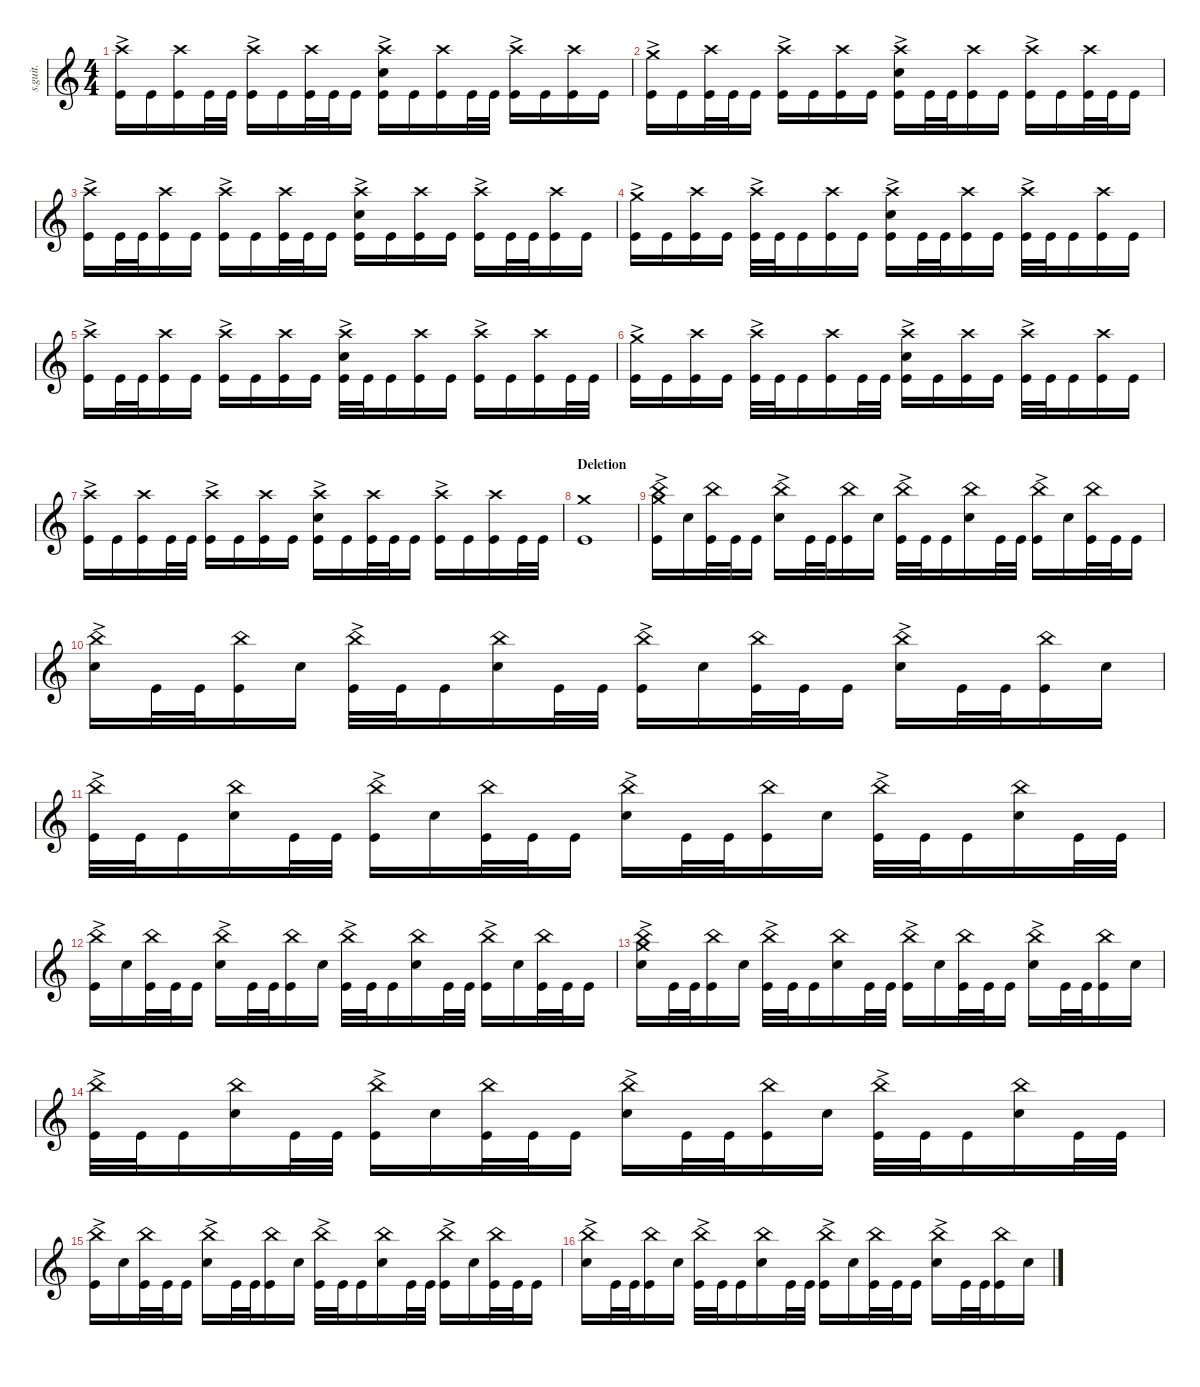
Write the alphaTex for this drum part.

\defaultSystemsLayout 4
\hideDynamics
\bracketExtendMode nobrackets
\track ("Tomas Haake (Drums)" "s.guit.") {instrument percussion}
\staff {score}
\articulation defaults
\ts (4 4)
\tempo (115 hide)
\clef g2
\ks c
("Crash high (hit)"{ac} "Kick (hit)").16{lyrics (0 "") lyrics (1 "") lyrics (2 "") lyrics (3 "") lyrics (4 "") dy f} "Kick (hit)".16{lyrics (0 "") lyrics (1 "") lyrics (2 "") lyrics (3 "") lyrics (4 "")} ("Crash high (hit)" "Kick (hit)").16{lyrics (0 "") lyrics (1 "") lyrics (2 "") lyrics (3 "") lyrics (4 "") dy p} "Kick (hit)".32{lyrics (0 "") lyrics (1 "") lyrics (2 "") lyrics (3 "") lyrics (4 "") dy f} "Kick (hit)".32{lyrics (0 "") lyrics (1 "") lyrics (2 "") lyrics (3 "") lyrics (4 "") dy mf} ("Crash high (hit)"{ac} "Kick (hit)").16{lyrics (0 "") lyrics (1 "") lyrics (2 "") lyrics (3 "") lyrics (4 "") dy f} "Kick (hit)".16{lyrics (0 "") lyrics (1 "") lyrics (2 "") lyrics (3 "") lyrics (4 "")} ("Crash high (hit)" "Kick (hit)").32{lyrics (0 "") lyrics (1 "") lyrics (2 "") lyrics (3 "") lyrics (4 "") dy p} "Kick (hit)".32{lyrics (0 "") lyrics (1 "") lyrics (2 "") lyrics (3 "") lyrics (4 "") dy mf} "Kick (hit)".16{lyrics (0 "") lyrics (1 "") lyrics (2 "") lyrics (3 "") lyrics (4 "") dy f} ("Crash high (hit)"{ac} "Snare (hit) 2" "Kick (hit)").16{lyrics (0 "") lyrics (1 "") lyrics (2 "") lyrics (3 "") lyrics (4 "")} "Kick (hit)".16{lyrics (0 "") lyrics (1 "") lyrics (2 "") lyrics (3 "") lyrics (4 "")} ("Crash high (hit)" "Kick (hit)").16{lyrics (0 "") lyrics (1 "") lyrics (2 "") lyrics (3 "") lyrics (4 "") dy p} "Kick (hit)".32{lyrics (0 "") lyrics (1 "") lyrics (2 "") lyrics (3 "") lyrics (4 "") dy f} "Kick (hit)".32{lyrics (0 "") lyrics (1 "") lyrics (2 "") lyrics (3 "") lyrics (4 "") dy mf} ("Crash high (hit)"{ac} "Kick (hit)").16{lyrics (0 "") lyrics (1 "") lyrics (2 "") lyrics (3 "") lyrics (4 "") dy f} "Kick (hit)".16{lyrics (0 "") lyrics (1 "") lyrics (2 "") lyrics (3 "") lyrics (4 "")} ("Crash high (hit)" "Kick (hit)").16{lyrics (0 "") lyrics (1 "") lyrics (2 "") lyrics (3 "") lyrics (4 "") dy p} "Kick (hit)".16{lyrics (0 "") lyrics (1 "") lyrics (2 "") lyrics (3 "") lyrics (4 "") dy f} |
("Crash medium (hit)"{ac} "Kick (hit)").16{lyrics (0 "") lyrics (1 "") lyrics (2 "") lyrics (3 "") lyrics (4 "")} "Kick (hit)".16{lyrics (0 "") lyrics (1 "") lyrics (2 "") lyrics (3 "") lyrics (4 "")} ("Crash high (hit)" "Kick (hit)").32{lyrics (0 "") lyrics (1 "") lyrics (2 "") lyrics (3 "") lyrics (4 "") dy p} "Kick (hit)".32{lyrics (0 "") lyrics (1 "") lyrics (2 "") lyrics (3 "") lyrics (4 "") dy mf} "Kick (hit)".16{lyrics (0 "") lyrics (1 "") lyrics (2 "") lyrics (3 "") lyrics (4 "") dy f} ("Crash high (hit)"{ac} "Kick (hit)").16{lyrics (0 "") lyrics (1 "") lyrics (2 "") lyrics (3 "") lyrics (4 "")} "Kick (hit)".16{lyrics (0 "") lyrics (1 "") lyrics (2 "") lyrics (3 "") lyrics (4 "")} ("Crash high (hit)" "Kick (hit)").16{lyrics (0 "") lyrics (1 "") lyrics (2 "") lyrics (3 "") lyrics (4 "") dy p} "Kick (hit)".16{lyrics (0 "") lyrics (1 "") lyrics (2 "") lyrics (3 "") lyrics (4 "") dy f} ("Crash high (hit)"{ac} "Snare (hit) 2" "Kick (hit)").16{lyrics (0 "") lyrics (1 "") lyrics (2 "") lyrics (3 "") lyrics (4 "")} "Kick (hit)".32{lyrics (0 "") lyrics (1 "") lyrics (2 "") lyrics (3 "") lyrics (4 "")} "Kick (hit)".32{lyrics (0 "") lyrics (1 "") lyrics (2 "") lyrics (3 "") lyrics (4 "") dy mf} ("Crash high (hit)" "Kick (hit)").16{lyrics (0 "") lyrics (1 "") lyrics (2 "") lyrics (3 "") lyrics (4 "") dy p} "Kick (hit)".16{lyrics (0 "") lyrics (1 "") lyrics (2 "") lyrics (3 "") lyrics (4 "") dy f} ("Crash high (hit)"{ac} "Kick (hit)").16{lyrics (0 "") lyrics (1 "") lyrics (2 "") lyrics (3 "") lyrics (4 "")} "Kick (hit)".16{lyrics (0 "") lyrics (1 "") lyrics (2 "") lyrics (3 "") lyrics (4 "")} ("Crash high (hit)" "Kick (hit)").32{lyrics (0 "") lyrics (1 "") lyrics (2 "") lyrics (3 "") lyrics (4 "") dy p} "Kick (hit)".32{lyrics (0 "") lyrics (1 "") lyrics (2 "") lyrics (3 "") lyrics (4 "") dy mf} "Kick (hit)".16{lyrics (0 "") lyrics (1 "") lyrics (2 "") lyrics (3 "") lyrics (4 "") dy f} |
("Crash high (hit)"{ac} "Kick (hit)").16{lyrics (0 "") lyrics (1 "") lyrics (2 "") lyrics (3 "") lyrics (4 "")} "Kick (hit)".32{lyrics (0 "") lyrics (1 "") lyrics (2 "") lyrics (3 "") lyrics (4 "")} "Kick (hit)".32{lyrics (0 "") lyrics (1 "") lyrics (2 "") lyrics (3 "") lyrics (4 "") dy mf} ("Crash high (hit)" "Kick (hit)").16{lyrics (0 "") lyrics (1 "") lyrics (2 "") lyrics (3 "") lyrics (4 "") dy p} "Kick (hit)".16{lyrics (0 "") lyrics (1 "") lyrics (2 "") lyrics (3 "") lyrics (4 "") dy f} ("Crash high (hit)"{ac} "Kick (hit)").16{lyrics (0 "") lyrics (1 "") lyrics (2 "") lyrics (3 "") lyrics (4 "")} "Kick (hit)".16{lyrics (0 "") lyrics (1 "") lyrics (2 "") lyrics (3 "") lyrics (4 "")} ("Crash high (hit)" "Kick (hit)").32{lyrics (0 "") lyrics (1 "") lyrics (2 "") lyrics (3 "") lyrics (4 "") dy p} "Kick (hit)".32{lyrics (0 "") lyrics (1 "") lyrics (2 "") lyrics (3 "") lyrics (4 "") dy mf} "Kick (hit)".16{lyrics (0 "") lyrics (1 "") lyrics (2 "") lyrics (3 "") lyrics (4 "") dy f} ("Crash high (hit)"{ac} "Snare (hit) 2" "Kick (hit)").16{lyrics (0 "") lyrics (1 "") lyrics (2 "") lyrics (3 "") lyrics (4 "")} "Kick (hit)".16{lyrics (0 "") lyrics (1 "") lyrics (2 "") lyrics (3 "") lyrics (4 "")} ("Crash high (hit)" "Kick (hit)").16{lyrics (0 "") lyrics (1 "") lyrics (2 "") lyrics (3 "") lyrics (4 "") dy p} "Kick (hit)".16{lyrics (0 "") lyrics (1 "") lyrics (2 "") lyrics (3 "") lyrics (4 "") dy f} ("Crash high (hit)"{ac} "Kick (hit)").16{lyrics (0 "") lyrics (1 "") lyrics (2 "") lyrics (3 "") lyrics (4 "")} "Kick (hit)".32{lyrics (0 "") lyrics (1 "") lyrics (2 "") lyrics (3 "") lyrics (4 "")} "Kick (hit)".32{lyrics (0 "") lyrics (1 "") lyrics (2 "") lyrics (3 "") lyrics (4 "") dy mf} ("Crash high (hit)" "Kick (hit)").16{lyrics (0 "") lyrics (1 "") lyrics (2 "") lyrics (3 "") lyrics (4 "") dy p} "Kick (hit)".16{lyrics (0 "") lyrics (1 "") lyrics (2 "") lyrics (3 "") lyrics (4 "") dy f} |
("Crash medium (hit)"{ac} "Kick (hit)").16{lyrics (0 "") lyrics (1 "") lyrics (2 "") lyrics (3 "") lyrics (4 "")} "Kick (hit)".16{lyrics (0 "") lyrics (1 "") lyrics (2 "") lyrics (3 "") lyrics (4 "")} ("Crash high (hit)" "Kick (hit)").16{lyrics (0 "") lyrics (1 "") lyrics (2 "") lyrics (3 "") lyrics (4 "") dy p} "Kick (hit)".16{lyrics (0 "") lyrics (1 "") lyrics (2 "") lyrics (3 "") lyrics (4 "") dy f} ("Crash high (hit)"{ac} "Kick (hit)").32{lyrics (0 "") lyrics (1 "") lyrics (2 "") lyrics (3 "") lyrics (4 "")} "Kick (hit)".32{lyrics (0 "") lyrics (1 "") lyrics (2 "") lyrics (3 "") lyrics (4 "") dy mf} "Kick (hit)".16{lyrics (0 "") lyrics (1 "") lyrics (2 "") lyrics (3 "") lyrics (4 "") dy f} ("Crash high (hit)" "Kick (hit)").16{lyrics (0 "") lyrics (1 "") lyrics (2 "") lyrics (3 "") lyrics (4 "") dy p} "Kick (hit)".16{lyrics (0 "") lyrics (1 "") lyrics (2 "") lyrics (3 "") lyrics (4 "") dy f} ("Crash high (hit)"{ac} "Snare (hit) 2" "Kick (hit)").16{lyrics (0 "") lyrics (1 "") lyrics (2 "") lyrics (3 "") lyrics (4 "")} "Kick (hit)".32{lyrics (0 "") lyrics (1 "") lyrics (2 "") lyrics (3 "") lyrics (4 "")} "Kick (hit)".32{lyrics (0 "") lyrics (1 "") lyrics (2 "") lyrics (3 "") lyrics (4 "") dy mf} ("Crash high (hit)" "Kick (hit)").16{lyrics (0 "") lyrics (1 "") lyrics (2 "") lyrics (3 "") lyrics (4 "") dy p} "Kick (hit)".16{lyrics (0 "") lyrics (1 "") lyrics (2 "") lyrics (3 "") lyrics (4 "") dy f} ("Crash high (hit)"{ac} "Kick (hit)").32{lyrics (0 "") lyrics (1 "") lyrics (2 "") lyrics (3 "") lyrics (4 "")} "Kick (hit)".32{lyrics (0 "") lyrics (1 "") lyrics (2 "") lyrics (3 "") lyrics (4 "") dy mf} "Kick (hit)".16{lyrics (0 "") lyrics (1 "") lyrics (2 "") lyrics (3 "") lyrics (4 "") dy f} ("Crash high (hit)" "Kick (hit)").16{lyrics (0 "") lyrics (1 "") lyrics (2 "") lyrics (3 "") lyrics (4 "") dy p} "Kick (hit)".16{lyrics (0 "") lyrics (1 "") lyrics (2 "") lyrics (3 "") lyrics (4 "") dy f} |
("Crash high (hit)"{ac} "Kick (hit)").16{lyrics (0 "") lyrics (1 "") lyrics (2 "") lyrics (3 "") lyrics (4 "")} "Kick (hit)".32{lyrics (0 "") lyrics (1 "") lyrics (2 "") lyrics (3 "") lyrics (4 "")} "Kick (hit)".32{lyrics (0 "") lyrics (1 "") lyrics (2 "") lyrics (3 "") lyrics (4 "") dy mf} ("Crash high (hit)" "Kick (hit)").16{lyrics (0 "") lyrics (1 "") lyrics (2 "") lyrics (3 "") lyrics (4 "") dy p} "Kick (hit)".16{lyrics (0 "") lyrics (1 "") lyrics (2 "") lyrics (3 "") lyrics (4 "") dy f} ("Crash high (hit)"{ac} "Kick (hit)").16{lyrics (0 "") lyrics (1 "") lyrics (2 "") lyrics (3 "") lyrics (4 "")} "Kick (hit)".16{lyrics (0 "") lyrics (1 "") lyrics (2 "") lyrics (3 "") lyrics (4 "")} ("Crash high (hit)" "Kick (hit)").16{lyrics (0 "") lyrics (1 "") lyrics (2 "") lyrics (3 "") lyrics (4 "") dy p} "Kick (hit)".16{lyrics (0 "") lyrics (1 "") lyrics (2 "") lyrics (3 "") lyrics (4 "") dy f} ("Crash high (hit)"{ac} "Snare (hit) 2" "Kick (hit)").32{lyrics (0 "") lyrics (1 "") lyrics (2 "") lyrics (3 "") lyrics (4 "")} "Kick (hit)".32{lyrics (0 "") lyrics (1 "") lyrics (2 "") lyrics (3 "") lyrics (4 "") dy mf} "Kick (hit)".16{lyrics (0 "") lyrics (1 "") lyrics (2 "") lyrics (3 "") lyrics (4 "") dy f} ("Crash high (hit)" "Kick (hit)").16{lyrics (0 "") lyrics (1 "") lyrics (2 "") lyrics (3 "") lyrics (4 "") dy p} "Kick (hit)".16{lyrics (0 "") lyrics (1 "") lyrics (2 "") lyrics (3 "") lyrics (4 "") dy f} ("Crash high (hit)"{ac} "Kick (hit)").16{lyrics (0 "") lyrics (1 "") lyrics (2 "") lyrics (3 "") lyrics (4 "")} "Kick (hit)".16{lyrics (0 "") lyrics (1 "") lyrics (2 "") lyrics (3 "") lyrics (4 "")} ("Crash high (hit)" "Kick (hit)").16{lyrics (0 "") lyrics (1 "") lyrics (2 "") lyrics (3 "") lyrics (4 "") dy p} "Kick (hit)".32{lyrics (0 "") lyrics (1 "") lyrics (2 "") lyrics (3 "") lyrics (4 "") dy f} "Kick (hit)".32{lyrics (0 "") lyrics (1 "") lyrics (2 "") lyrics (3 "") lyrics (4 "") dy mf} |
("Crash medium (hit)"{ac} "Kick (hit)").16{lyrics (0 "") lyrics (1 "") lyrics (2 "") lyrics (3 "") lyrics (4 "") dy f} "Kick (hit)".16{lyrics (0 "") lyrics (1 "") lyrics (2 "") lyrics (3 "") lyrics (4 "")} ("Crash high (hit)" "Kick (hit)").16{lyrics (0 "") lyrics (1 "") lyrics (2 "") lyrics (3 "") lyrics (4 "") dy p} "Kick (hit)".16{lyrics (0 "") lyrics (1 "") lyrics (2 "") lyrics (3 "") lyrics (4 "") dy f} ("Crash high (hit)"{ac} "Kick (hit)").32{lyrics (0 "") lyrics (1 "") lyrics (2 "") lyrics (3 "") lyrics (4 "")} "Kick (hit)".32{lyrics (0 "") lyrics (1 "") lyrics (2 "") lyrics (3 "") lyrics (4 "") dy mf} "Kick (hit)".16{lyrics (0 "") lyrics (1 "") lyrics (2 "") lyrics (3 "") lyrics (4 "") dy f} ("Crash high (hit)" "Kick (hit)").16{lyrics (0 "") lyrics (1 "") lyrics (2 "") lyrics (3 "") lyrics (4 "") dy p} "Kick (hit)".32{lyrics (0 "") lyrics (1 "") lyrics (2 "") lyrics (3 "") lyrics (4 "") dy f} "Kick (hit)".32{lyrics (0 "") lyrics (1 "") lyrics (2 "") lyrics (3 "") lyrics (4 "") dy mf} ("Crash high (hit)"{ac} "Snare (hit) 2" "Kick (hit)").16{lyrics (0 "") lyrics (1 "") lyrics (2 "") lyrics (3 "") lyrics (4 "") dy f} "Kick (hit)".16{lyrics (0 "") lyrics (1 "") lyrics (2 "") lyrics (3 "") lyrics (4 "")} ("Crash high (hit)" "Kick (hit)").16{lyrics (0 "") lyrics (1 "") lyrics (2 "") lyrics (3 "") lyrics (4 "") dy p} "Kick (hit)".16{lyrics (0 "") lyrics (1 "") lyrics (2 "") lyrics (3 "") lyrics (4 "") dy f} ("Crash high (hit)"{ac} "Kick (hit)").32{lyrics (0 "") lyrics (1 "") lyrics (2 "") lyrics (3 "") lyrics (4 "")} "Kick (hit)".32{lyrics (0 "") lyrics (1 "") lyrics (2 "") lyrics (3 "") lyrics (4 "") dy mf} "Kick (hit)".16{lyrics (0 "") lyrics (1 "") lyrics (2 "") lyrics (3 "") lyrics (4 "") dy f} ("Crash high (hit)" "Kick (hit)").16{lyrics (0 "") lyrics (1 "") lyrics (2 "") lyrics (3 "") lyrics (4 "") dy p} "Kick (hit)".16{lyrics (0 "") lyrics (1 "") lyrics (2 "") lyrics (3 "") lyrics (4 "") dy f} |
("Crash high (hit)"{ac} "Kick (hit)").16{lyrics (0 "") lyrics (1 "") lyrics (2 "") lyrics (3 "") lyrics (4 "")} "Kick (hit)".16{lyrics (0 "") lyrics (1 "") lyrics (2 "") lyrics (3 "") lyrics (4 "")} ("Crash high (hit)" "Kick (hit)").16{lyrics (0 "") lyrics (1 "") lyrics (2 "") lyrics (3 "") lyrics (4 "") dy p} "Kick (hit)".32{lyrics (0 "") lyrics (1 "") lyrics (2 "") lyrics (3 "") lyrics (4 "") dy f} "Kick (hit)".32{lyrics (0 "") lyrics (1 "") lyrics (2 "") lyrics (3 "") lyrics (4 "") dy mf} ("Crash high (hit)"{ac} "Kick (hit)").16{lyrics (0 "") lyrics (1 "") lyrics (2 "") lyrics (3 "") lyrics (4 "") dy f} "Kick (hit)".16{lyrics (0 "") lyrics (1 "") lyrics (2 "") lyrics (3 "") lyrics (4 "")} ("Crash high (hit)" "Kick (hit)").16{lyrics (0 "") lyrics (1 "") lyrics (2 "") lyrics (3 "") lyrics (4 "") dy p} "Kick (hit)".16{lyrics (0 "") lyrics (1 "") lyrics (2 "") lyrics (3 "") lyrics (4 "") dy f} ("Crash high (hit)"{ac} "Snare (hit) 2" "Kick (hit)").16{lyrics (0 "") lyrics (1 "") lyrics (2 "") lyrics (3 "") lyrics (4 "")} "Kick (hit)".16{lyrics (0 "") lyrics (1 "") lyrics (2 "") lyrics (3 "") lyrics (4 "")} ("Crash high (hit)" "Kick (hit)").32{lyrics (0 "") lyrics (1 "") lyrics (2 "") lyrics (3 "") lyrics (4 "") dy p} "Kick (hit)".32{lyrics (0 "") lyrics (1 "") lyrics (2 "") lyrics (3 "") lyrics (4 "") dy mf} "Kick (hit)".16{lyrics (0 "") lyrics (1 "") lyrics (2 "") lyrics (3 "") lyrics (4 "") dy f} ("Crash high (hit)"{ac} "Kick (hit)").16{lyrics (0 "") lyrics (1 "") lyrics (2 "") lyrics (3 "") lyrics (4 "")} "Kick (hit)".16{lyrics (0 "") lyrics (1 "") lyrics (2 "") lyrics (3 "") lyrics (4 "")} ("Crash high (hit)" "Kick (hit)").16{lyrics (0 "") lyrics (1 "") lyrics (2 "") lyrics (3 "") lyrics (4 "") dy p} "Kick (hit)".32{lyrics (0 "") lyrics (1 "") lyrics (2 "") lyrics (3 "") lyrics (4 "") dy f} "Kick (hit)".32{lyrics (0 "") lyrics (1 "") lyrics (2 "") lyrics (3 "") lyrics (4 "") dy mf} |
\section ("" "Deletion")
("Crash medium (hit)" "Kick (hit)").1{lyrics (0 "") lyrics (1 "") lyrics (2 "") lyrics (3 "") lyrics (4 "") dy f} |
("China (hit)"{ac} "Crash medium (hit)" "Kick (hit)").16{lyrics (0 "") lyrics (1 "") lyrics (2 "") lyrics (3 "") lyrics (4 "") dy mf} "Snare (hit) 2".16{lyrics (0 "") lyrics (1 "") lyrics (2 "") lyrics (3 "") lyrics (4 "") dy f} ("China (hit)" "Kick (hit)").32{lyrics (0 "") lyrics (1 "") lyrics (2 "") lyrics (3 "") lyrics (4 "") dy mp} "Kick (hit)".32{lyrics (0 "") lyrics (1 "") lyrics (2 "") lyrics (3 "") lyrics (4 "") dy mf} "Kick (hit)".16{lyrics (0 "") lyrics (1 "") lyrics (2 "") lyrics (3 "") lyrics (4 "") dy f} ("China (hit)"{ac} "Snare (hit) 2").16{lyrics (0 "") lyrics (1 "") lyrics (2 "") lyrics (3 "") lyrics (4 "")} "Kick (hit)".32{lyrics (0 "") lyrics (1 "") lyrics (2 "") lyrics (3 "") lyrics (4 "")} "Kick (hit)".32{lyrics (0 "") lyrics (1 "") lyrics (2 "") lyrics (3 "") lyrics (4 "") dy mf} ("China (hit)" "Kick (hit)").16{lyrics (0 "") lyrics (1 "") lyrics (2 "") lyrics (3 "") lyrics (4 "") dy mp} "Snare (hit) 2".16{lyrics (0 "") lyrics (1 "") lyrics (2 "") lyrics (3 "") lyrics (4 "") dy f} ("China (hit)"{ac} "Kick (hit)").32{lyrics (0 "") lyrics (1 "") lyrics (2 "") lyrics (3 "") lyrics (4 "")} "Kick (hit)".32{lyrics (0 "") lyrics (1 "") lyrics (2 "") lyrics (3 "") lyrics (4 "") dy mf} "Kick (hit)".16{lyrics (0 "") lyrics (1 "") lyrics (2 "") lyrics (3 "") lyrics (4 "") dy f} ("China (hit)" "Snare (hit) 2").16{lyrics (0 "") lyrics (1 "") lyrics (2 "") lyrics (3 "") lyrics (4 "") dy mp} "Kick (hit)".32{lyrics (0 "") lyrics (1 "") lyrics (2 "") lyrics (3 "") lyrics (4 "") dy f} "Kick (hit)".32{lyrics (0 "") lyrics (1 "") lyrics (2 "") lyrics (3 "") lyrics (4 "") dy mf} ("China (hit)"{ac} "Kick (hit)").16{lyrics (0 "") lyrics (1 "") lyrics (2 "") lyrics (3 "") lyrics (4 "") dy f} "Snare (hit) 2".16{lyrics (0 "") lyrics (1 "") lyrics (2 "") lyrics (3 "") lyrics (4 "")} ("China (hit)" "Kick (hit)").32{lyrics (0 "") lyrics (1 "") lyrics (2 "") lyrics (3 "") lyrics (4 "") dy mp} "Kick (hit)".32{lyrics (0 "") lyrics (1 "") lyrics (2 "") lyrics (3 "") lyrics (4 "") dy mf} "Kick (hit)".16{lyrics (0 "") lyrics (1 "") lyrics (2 "") lyrics (3 "") lyrics (4 "") dy f} |
("China (hit)"{ac} "Snare (hit) 2").16{lyrics (0 "") lyrics (1 "") lyrics (2 "") lyrics (3 "") lyrics (4 "")} "Kick (hit)".32{lyrics (0 "") lyrics (1 "") lyrics (2 "") lyrics (3 "") lyrics (4 "")} "Kick (hit)".32{lyrics (0 "") lyrics (1 "") lyrics (2 "") lyrics (3 "") lyrics (4 "") dy mf} ("China (hit)" "Kick (hit)").16{lyrics (0 "") lyrics (1 "") lyrics (2 "") lyrics (3 "") lyrics (4 "") dy mp} "Snare (hit) 2".16{lyrics (0 "") lyrics (1 "") lyrics (2 "") lyrics (3 "") lyrics (4 "") dy f} ("China (hit)"{ac} "Kick (hit)").32{lyrics (0 "") lyrics (1 "") lyrics (2 "") lyrics (3 "") lyrics (4 "")} "Kick (hit)".32{lyrics (0 "") lyrics (1 "") lyrics (2 "") lyrics (3 "") lyrics (4 "") dy mf} "Kick (hit)".16{lyrics (0 "") lyrics (1 "") lyrics (2 "") lyrics (3 "") lyrics (4 "") dy f} ("China (hit)" "Snare (hit) 2").16{lyrics (0 "") lyrics (1 "") lyrics (2 "") lyrics (3 "") lyrics (4 "") dy mp} "Kick (hit)".32{lyrics (0 "") lyrics (1 "") lyrics (2 "") lyrics (3 "") lyrics (4 "") dy f} "Kick (hit)".32{lyrics (0 "") lyrics (1 "") lyrics (2 "") lyrics (3 "") lyrics (4 "") dy mf} ("China (hit)"{ac} "Kick (hit)").16{lyrics (0 "") lyrics (1 "") lyrics (2 "") lyrics (3 "") lyrics (4 "") dy f} "Snare (hit) 2".16{lyrics (0 "") lyrics (1 "") lyrics (2 "") lyrics (3 "") lyrics (4 "")} ("China (hit)" "Kick (hit)").32{lyrics (0 "") lyrics (1 "") lyrics (2 "") lyrics (3 "") lyrics (4 "") dy mp} "Kick (hit)".32{lyrics (0 "") lyrics (1 "") lyrics (2 "") lyrics (3 "") lyrics (4 "") dy mf} "Kick (hit)".16{lyrics (0 "") lyrics (1 "") lyrics (2 "") lyrics (3 "") lyrics (4 "") dy f} ("China (hit)"{ac} "Snare (hit) 2").16{lyrics (0 "") lyrics (1 "") lyrics (2 "") lyrics (3 "") lyrics (4 "")} "Kick (hit)".32{lyrics (0 "") lyrics (1 "") lyrics (2 "") lyrics (3 "") lyrics (4 "")} "Kick (hit)".32{lyrics (0 "") lyrics (1 "") lyrics (2 "") lyrics (3 "") lyrics (4 "") dy mf} ("China (hit)" "Kick (hit)").16{lyrics (0 "") lyrics (1 "") lyrics (2 "") lyrics (3 "") lyrics (4 "") dy mp} "Snare (hit) 2".16{lyrics (0 "") lyrics (1 "") lyrics (2 "") lyrics (3 "") lyrics (4 "") dy f} |
("China (hit)"{ac} "Kick (hit)").32{lyrics (0 "") lyrics (1 "") lyrics (2 "") lyrics (3 "") lyrics (4 "")} "Kick (hit)".32{lyrics (0 "") lyrics (1 "") lyrics (2 "") lyrics (3 "") lyrics (4 "") dy mf} "Kick (hit)".16{lyrics (0 "") lyrics (1 "") lyrics (2 "") lyrics (3 "") lyrics (4 "") dy f} ("China (hit)" "Snare (hit) 2").16{lyrics (0 "") lyrics (1 "") lyrics (2 "") lyrics (3 "") lyrics (4 "") dy mp} "Kick (hit)".32{lyrics (0 "") lyrics (1 "") lyrics (2 "") lyrics (3 "") lyrics (4 "") dy f} "Kick (hit)".32{lyrics (0 "") lyrics (1 "") lyrics (2 "") lyrics (3 "") lyrics (4 "") dy mf} ("China (hit)"{ac} "Kick (hit)").16{lyrics (0 "") lyrics (1 "") lyrics (2 "") lyrics (3 "") lyrics (4 "") dy f} "Snare (hit) 2".16{lyrics (0 "") lyrics (1 "") lyrics (2 "") lyrics (3 "") lyrics (4 "")} ("China (hit)" "Kick (hit)").32{lyrics (0 "") lyrics (1 "") lyrics (2 "") lyrics (3 "") lyrics (4 "") dy mp} "Kick (hit)".32{lyrics (0 "") lyrics (1 "") lyrics (2 "") lyrics (3 "") lyrics (4 "") dy mf} "Kick (hit)".16{lyrics (0 "") lyrics (1 "") lyrics (2 "") lyrics (3 "") lyrics (4 "") dy f} ("China (hit)"{ac} "Snare (hit) 2").16{lyrics (0 "") lyrics (1 "") lyrics (2 "") lyrics (3 "") lyrics (4 "")} "Kick (hit)".32{lyrics (0 "") lyrics (1 "") lyrics (2 "") lyrics (3 "") lyrics (4 "")} "Kick (hit)".32{lyrics (0 "") lyrics (1 "") lyrics (2 "") lyrics (3 "") lyrics (4 "") dy mf} ("China (hit)" "Kick (hit)").16{lyrics (0 "") lyrics (1 "") lyrics (2 "") lyrics (3 "") lyrics (4 "") dy mp} "Snare (hit) 2".16{lyrics (0 "") lyrics (1 "") lyrics (2 "") lyrics (3 "") lyrics (4 "") dy f} ("China (hit)"{ac} "Kick (hit)").32{lyrics (0 "") lyrics (1 "") lyrics (2 "") lyrics (3 "") lyrics (4 "")} "Kick (hit)".32{lyrics (0 "") lyrics (1 "") lyrics (2 "") lyrics (3 "") lyrics (4 "") dy mf} "Kick (hit)".16{lyrics (0 "") lyrics (1 "") lyrics (2 "") lyrics (3 "") lyrics (4 "") dy f} ("China (hit)" "Snare (hit) 2").16{lyrics (0 "") lyrics (1 "") lyrics (2 "") lyrics (3 "") lyrics (4 "") dy mp} "Kick (hit)".32{lyrics (0 "") lyrics (1 "") lyrics (2 "") lyrics (3 "") lyrics (4 "") dy f} "Kick (hit)".32{lyrics (0 "") lyrics (1 "") lyrics (2 "") lyrics (3 "") lyrics (4 "") dy mf} |
("China (hit)"{ac} "Kick (hit)").16{lyrics (0 "") lyrics (1 "") lyrics (2 "") lyrics (3 "") lyrics (4 "") dy f} "Snare (hit) 2".16{lyrics (0 "") lyrics (1 "") lyrics (2 "") lyrics (3 "") lyrics (4 "")} ("China (hit)" "Kick (hit)").32{lyrics (0 "") lyrics (1 "") lyrics (2 "") lyrics (3 "") lyrics (4 "") dy mp} "Kick (hit)".32{lyrics (0 "") lyrics (1 "") lyrics (2 "") lyrics (3 "") lyrics (4 "") dy mf} "Kick (hit)".16{lyrics (0 "") lyrics (1 "") lyrics (2 "") lyrics (3 "") lyrics (4 "") dy f} ("China (hit)"{ac} "Snare (hit) 2").16{lyrics (0 "") lyrics (1 "") lyrics (2 "") lyrics (3 "") lyrics (4 "")} "Kick (hit)".32{lyrics (0 "") lyrics (1 "") lyrics (2 "") lyrics (3 "") lyrics (4 "")} "Kick (hit)".32{lyrics (0 "") lyrics (1 "") lyrics (2 "") lyrics (3 "") lyrics (4 "") dy mf} ("China (hit)" "Kick (hit)").16{lyrics (0 "") lyrics (1 "") lyrics (2 "") lyrics (3 "") lyrics (4 "") dy mp} "Snare (hit) 2".16{lyrics (0 "") lyrics (1 "") lyrics (2 "") lyrics (3 "") lyrics (4 "") dy f} ("China (hit)"{ac} "Kick (hit)").32{lyrics (0 "") lyrics (1 "") lyrics (2 "") lyrics (3 "") lyrics (4 "")} "Kick (hit)".32{lyrics (0 "") lyrics (1 "") lyrics (2 "") lyrics (3 "") lyrics (4 "") dy mf} "Kick (hit)".16{lyrics (0 "") lyrics (1 "") lyrics (2 "") lyrics (3 "") lyrics (4 "") dy f} ("China (hit)" "Snare (hit) 2").16{lyrics (0 "") lyrics (1 "") lyrics (2 "") lyrics (3 "") lyrics (4 "") dy mp} "Kick (hit)".32{lyrics (0 "") lyrics (1 "") lyrics (2 "") lyrics (3 "") lyrics (4 "") dy f} "Kick (hit)".32{lyrics (0 "") lyrics (1 "") lyrics (2 "") lyrics (3 "") lyrics (4 "") dy mf} ("China (hit)"{ac} "Kick (hit)").16{lyrics (0 "") lyrics (1 "") lyrics (2 "") lyrics (3 "") lyrics (4 "") dy f} "Snare (hit) 2".16{lyrics (0 "") lyrics (1 "") lyrics (2 "") lyrics (3 "") lyrics (4 "")} ("China (hit)" "Kick (hit)").32{lyrics (0 "") lyrics (1 "") lyrics (2 "") lyrics (3 "") lyrics (4 "") dy mp} "Kick (hit)".32{lyrics (0 "") lyrics (1 "") lyrics (2 "") lyrics (3 "") lyrics (4 "") dy mf} "Kick (hit)".16{lyrics (0 "") lyrics (1 "") lyrics (2 "") lyrics (3 "") lyrics (4 "") dy f} |
("China (hit)"{ac} "Crash medium (hit)" "Snare (hit) 2").16{lyrics (0 "") lyrics (1 "") lyrics (2 "") lyrics (3 "") lyrics (4 "") dy mf} "Kick (hit)".32{lyrics (0 "") lyrics (1 "") lyrics (2 "") lyrics (3 "") lyrics (4 "") dy f} "Kick (hit)".32{lyrics (0 "") lyrics (1 "") lyrics (2 "") lyrics (3 "") lyrics (4 "") dy mf} ("China (hit)" "Kick (hit)").16{lyrics (0 "") lyrics (1 "") lyrics (2 "") lyrics (3 "") lyrics (4 "") dy mp} "Snare (hit) 2".16{lyrics (0 "") lyrics (1 "") lyrics (2 "") lyrics (3 "") lyrics (4 "") dy f} ("China (hit)"{ac} "Kick (hit)").32{lyrics (0 "") lyrics (1 "") lyrics (2 "") lyrics (3 "") lyrics (4 "")} "Kick (hit)".32{lyrics (0 "") lyrics (1 "") lyrics (2 "") lyrics (3 "") lyrics (4 "") dy mf} "Kick (hit)".16{lyrics (0 "") lyrics (1 "") lyrics (2 "") lyrics (3 "") lyrics (4 "") dy f} ("China (hit)" "Snare (hit) 2").16{lyrics (0 "") lyrics (1 "") lyrics (2 "") lyrics (3 "") lyrics (4 "") dy mp} "Kick (hit)".32{lyrics (0 "") lyrics (1 "") lyrics (2 "") lyrics (3 "") lyrics (4 "") dy f} "Kick (hit)".32{lyrics (0 "") lyrics (1 "") lyrics (2 "") lyrics (3 "") lyrics (4 "") dy mf} ("China (hit)"{ac} "Kick (hit)").16{lyrics (0 "") lyrics (1 "") lyrics (2 "") lyrics (3 "") lyrics (4 "") dy f} "Snare (hit) 2".16{lyrics (0 "") lyrics (1 "") lyrics (2 "") lyrics (3 "") lyrics (4 "")} ("China (hit)" "Kick (hit)").32{lyrics (0 "") lyrics (1 "") lyrics (2 "") lyrics (3 "") lyrics (4 "") dy mp} "Kick (hit)".32{lyrics (0 "") lyrics (1 "") lyrics (2 "") lyrics (3 "") lyrics (4 "") dy mf} "Kick (hit)".16{lyrics (0 "") lyrics (1 "") lyrics (2 "") lyrics (3 "") lyrics (4 "") dy f} ("China (hit)"{ac} "Snare (hit) 2").16{lyrics (0 "") lyrics (1 "") lyrics (2 "") lyrics (3 "") lyrics (4 "")} "Kick (hit)".32{lyrics (0 "") lyrics (1 "") lyrics (2 "") lyrics (3 "") lyrics (4 "")} "Kick (hit)".32{lyrics (0 "") lyrics (1 "") lyrics (2 "") lyrics (3 "") lyrics (4 "") dy mf} ("China (hit)" "Kick (hit)").16{lyrics (0 "") lyrics (1 "") lyrics (2 "") lyrics (3 "") lyrics (4 "") dy mp} "Snare (hit) 2".16{lyrics (0 "") lyrics (1 "") lyrics (2 "") lyrics (3 "") lyrics (4 "") dy f} |
("China (hit)"{ac} "Kick (hit)").32{lyrics (0 "") lyrics (1 "") lyrics (2 "") lyrics (3 "") lyrics (4 "")} "Kick (hit)".32{lyrics (0 "") lyrics (1 "") lyrics (2 "") lyrics (3 "") lyrics (4 "") dy mf} "Kick (hit)".16{lyrics (0 "") lyrics (1 "") lyrics (2 "") lyrics (3 "") lyrics (4 "") dy f} ("China (hit)" "Snare (hit) 2").16{lyrics (0 "") lyrics (1 "") lyrics (2 "") lyrics (3 "") lyrics (4 "") dy mp} "Kick (hit)".32{lyrics (0 "") lyrics (1 "") lyrics (2 "") lyrics (3 "") lyrics (4 "") dy f} "Kick (hit)".32{lyrics (0 "") lyrics (1 "") lyrics (2 "") lyrics (3 "") lyrics (4 "") dy mf} ("China (hit)"{ac} "Kick (hit)").16{lyrics (0 "") lyrics (1 "") lyrics (2 "") lyrics (3 "") lyrics (4 "") dy f} "Snare (hit) 2".16{lyrics (0 "") lyrics (1 "") lyrics (2 "") lyrics (3 "") lyrics (4 "")} ("China (hit)" "Kick (hit)").32{lyrics (0 "") lyrics (1 "") lyrics (2 "") lyrics (3 "") lyrics (4 "") dy mp} "Kick (hit)".32{lyrics (0 "") lyrics (1 "") lyrics (2 "") lyrics (3 "") lyrics (4 "") dy mf} "Kick (hit)".16{lyrics (0 "") lyrics (1 "") lyrics (2 "") lyrics (3 "") lyrics (4 "") dy f} ("China (hit)"{ac} "Snare (hit) 2").16{lyrics (0 "") lyrics (1 "") lyrics (2 "") lyrics (3 "") lyrics (4 "")} "Kick (hit)".32{lyrics (0 "") lyrics (1 "") lyrics (2 "") lyrics (3 "") lyrics (4 "")} "Kick (hit)".32{lyrics (0 "") lyrics (1 "") lyrics (2 "") lyrics (3 "") lyrics (4 "") dy mf} ("China (hit)" "Kick (hit)").16{lyrics (0 "") lyrics (1 "") lyrics (2 "") lyrics (3 "") lyrics (4 "") dy mp} "Snare (hit) 2".16{lyrics (0 "") lyrics (1 "") lyrics (2 "") lyrics (3 "") lyrics (4 "") dy f} ("China (hit)"{ac} "Kick (hit)").32{lyrics (0 "") lyrics (1 "") lyrics (2 "") lyrics (3 "") lyrics (4 "")} "Kick (hit)".32{lyrics (0 "") lyrics (1 "") lyrics (2 "") lyrics (3 "") lyrics (4 "") dy mf} "Kick (hit)".16{lyrics (0 "") lyrics (1 "") lyrics (2 "") lyrics (3 "") lyrics (4 "") dy f} ("China (hit)" "Snare (hit) 2").16{lyrics (0 "") lyrics (1 "") lyrics (2 "") lyrics (3 "") lyrics (4 "") dy mp} "Kick (hit)".32{lyrics (0 "") lyrics (1 "") lyrics (2 "") lyrics (3 "") lyrics (4 "") dy f} "Kick (hit)".32{lyrics (0 "") lyrics (1 "") lyrics (2 "") lyrics (3 "") lyrics (4 "") dy mf} |
("China (hit)"{ac} "Kick (hit)").16{lyrics (0 "") lyrics (1 "") lyrics (2 "") lyrics (3 "") lyrics (4 "") dy f} "Snare (hit) 2".16{lyrics (0 "") lyrics (1 "") lyrics (2 "") lyrics (3 "") lyrics (4 "")} ("China (hit)" "Kick (hit)").32{lyrics (0 "") lyrics (1 "") lyrics (2 "") lyrics (3 "") lyrics (4 "") dy mp} "Kick (hit)".32{lyrics (0 "") lyrics (1 "") lyrics (2 "") lyrics (3 "") lyrics (4 "") dy mf} "Kick (hit)".16{lyrics (0 "") lyrics (1 "") lyrics (2 "") lyrics (3 "") lyrics (4 "") dy f} ("China (hit)"{ac} "Snare (hit) 2").16{lyrics (0 "") lyrics (1 "") lyrics (2 "") lyrics (3 "") lyrics (4 "")} "Kick (hit)".32{lyrics (0 "") lyrics (1 "") lyrics (2 "") lyrics (3 "") lyrics (4 "")} "Kick (hit)".32{lyrics (0 "") lyrics (1 "") lyrics (2 "") lyrics (3 "") lyrics (4 "") dy mf} ("China (hit)" "Kick (hit)").16{lyrics (0 "") lyrics (1 "") lyrics (2 "") lyrics (3 "") lyrics (4 "") dy mp} "Snare (hit) 2".16{lyrics (0 "") lyrics (1 "") lyrics (2 "") lyrics (3 "") lyrics (4 "") dy f} ("China (hit)"{ac} "Kick (hit)").32{lyrics (0 "") lyrics (1 "") lyrics (2 "") lyrics (3 "") lyrics (4 "")} "Kick (hit)".32{lyrics (0 "") lyrics (1 "") lyrics (2 "") lyrics (3 "") lyrics (4 "") dy mf} "Kick (hit)".16{lyrics (0 "") lyrics (1 "") lyrics (2 "") lyrics (3 "") lyrics (4 "") dy f} ("China (hit)" "Snare (hit) 2").16{lyrics (0 "") lyrics (1 "") lyrics (2 "") lyrics (3 "") lyrics (4 "") dy mp} "Kick (hit)".32{lyrics (0 "") lyrics (1 "") lyrics (2 "") lyrics (3 "") lyrics (4 "") dy f} "Kick (hit)".32{lyrics (0 "") lyrics (1 "") lyrics (2 "") lyrics (3 "") lyrics (4 "") dy mf} ("China (hit)"{ac} "Kick (hit)").16{lyrics (0 "") lyrics (1 "") lyrics (2 "") lyrics (3 "") lyrics (4 "") dy f} "Snare (hit) 2".16{lyrics (0 "") lyrics (1 "") lyrics (2 "") lyrics (3 "") lyrics (4 "")} ("China (hit)" "Kick (hit)").32{lyrics (0 "") lyrics (1 "") lyrics (2 "") lyrics (3 "") lyrics (4 "") dy mp} "Kick (hit)".32{lyrics (0 "") lyrics (1 "") lyrics (2 "") lyrics (3 "") lyrics (4 "") dy mf} "Kick (hit)".16{lyrics (0 "") lyrics (1 "") lyrics (2 "") lyrics (3 "") lyrics (4 "") dy f} |
("China (hit)"{ac} "Snare (hit) 2").16{lyrics (0 "") lyrics (1 "") lyrics (2 "") lyrics (3 "") lyrics (4 "")} "Kick (hit)".32{lyrics (0 "") lyrics (1 "") lyrics (2 "") lyrics (3 "") lyrics (4 "")} "Kick (hit)".32{lyrics (0 "") lyrics (1 "") lyrics (2 "") lyrics (3 "") lyrics (4 "") dy mf} ("China (hit)" "Kick (hit)").16{lyrics (0 "") lyrics (1 "") lyrics (2 "") lyrics (3 "") lyrics (4 "") dy mp} "Snare (hit) 2".16{lyrics (0 "") lyrics (1 "") lyrics (2 "") lyrics (3 "") lyrics (4 "") dy f} ("China (hit)"{ac} "Kick (hit)").32{lyrics (0 "") lyrics (1 "") lyrics (2 "") lyrics (3 "") lyrics (4 "")} "Kick (hit)".32{lyrics (0 "") lyrics (1 "") lyrics (2 "") lyrics (3 "") lyrics (4 "") dy mf} "Kick (hit)".16{lyrics (0 "") lyrics (1 "") lyrics (2 "") lyrics (3 "") lyrics (4 "") dy f} ("China (hit)" "Snare (hit) 2").16{lyrics (0 "") lyrics (1 "") lyrics (2 "") lyrics (3 "") lyrics (4 "") dy mp} "Kick (hit)".32{lyrics (0 "") lyrics (1 "") lyrics (2 "") lyrics (3 "") lyrics (4 "") dy f} "Kick (hit)".32{lyrics (0 "") lyrics (1 "") lyrics (2 "") lyrics (3 "") lyrics (4 "") dy mf} ("China (hit)"{ac} "Kick (hit)").16{lyrics (0 "") lyrics (1 "") lyrics (2 "") lyrics (3 "") lyrics (4 "") dy f} "Snare (hit) 2".16{lyrics (0 "") lyrics (1 "") lyrics (2 "") lyrics (3 "") lyrics (4 "")} ("China (hit)" "Kick (hit)").32{lyrics (0 "") lyrics (1 "") lyrics (2 "") lyrics (3 "") lyrics (4 "") dy mp} "Kick (hit)".32{lyrics (0 "") lyrics (1 "") lyrics (2 "") lyrics (3 "") lyrics (4 "") dy mf} "Kick (hit)".16{lyrics (0 "") lyrics (1 "") lyrics (2 "") lyrics (3 "") lyrics (4 "") dy f} ("China (hit)"{ac} "Snare (hit) 2").16{lyrics (0 "") lyrics (1 "") lyrics (2 "") lyrics (3 "") lyrics (4 "")} "Kick (hit)".32{lyrics (0 "") lyrics (1 "") lyrics (2 "") lyrics (3 "") lyrics (4 "")} "Kick (hit)".32{lyrics (0 "") lyrics (1 "") lyrics (2 "") lyrics (3 "") lyrics (4 "") dy mf} ("China (hit)" "Kick (hit)").16{lyrics (0 "") lyrics (1 "") lyrics (2 "") lyrics (3 "") lyrics (4 "") dy mp} "Snare (hit) 2".16{lyrics (0 "") lyrics (1 "") lyrics (2 "") lyrics (3 "") lyrics (4 "") dy f}
